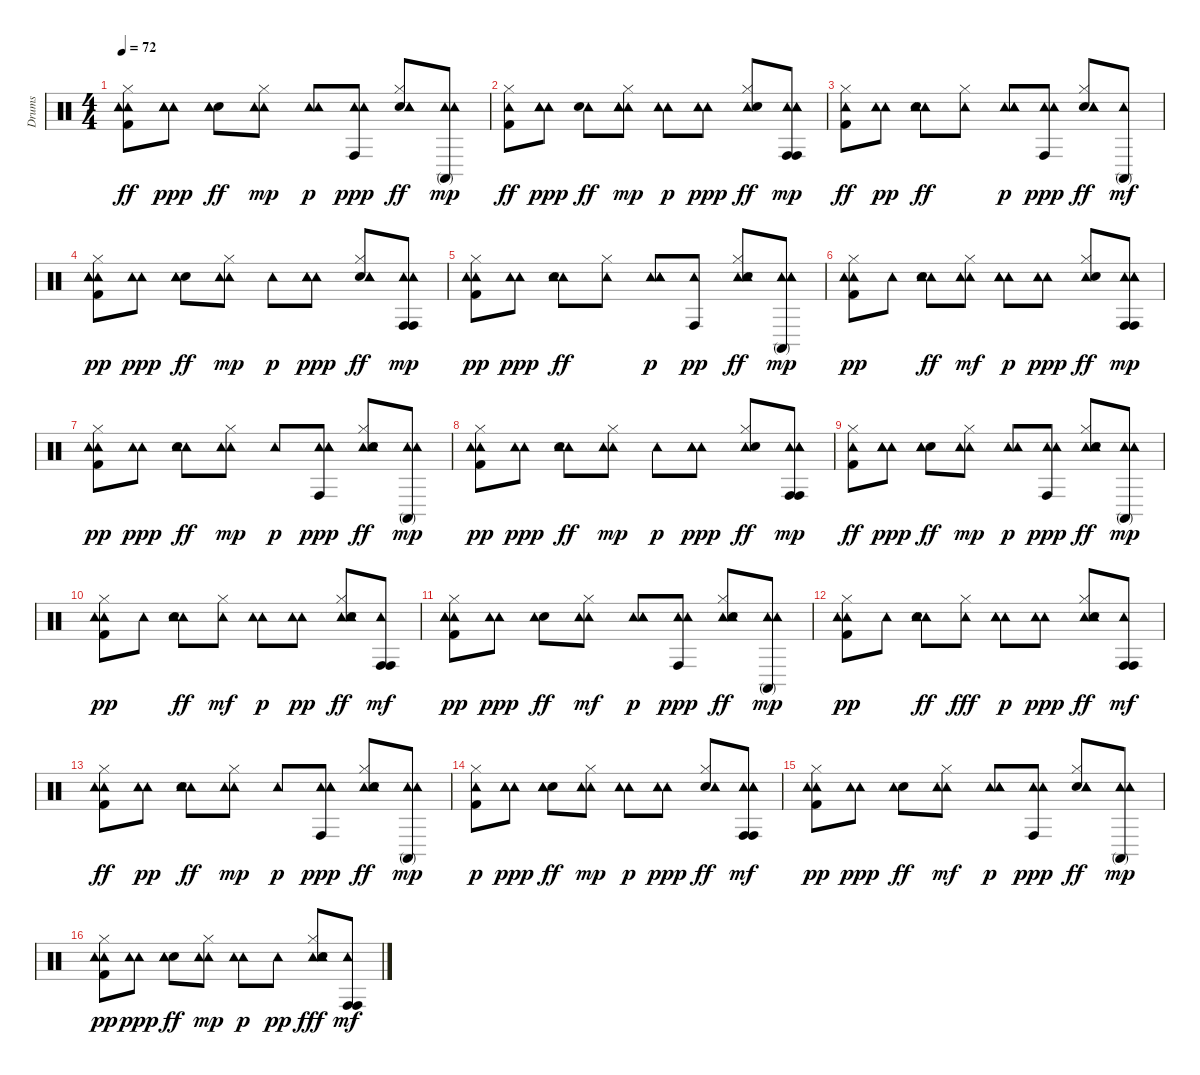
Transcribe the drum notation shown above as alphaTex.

\track ("Drums" "Drums") {instrument percussion}
\staff {score}
\articulation defaults
\ts (4 4)
\tempo 72
\clef neutral
\ks c
("Tambourine (hit)" "Tambourine (hit)" "Kick (hit) 2" "Hi-Hat (closed)").8{dy ff} ("Tambourine (hit)" "Tambourine (hit)" "Tambourine (hit)").8{dy ppp} ("Snare (hit) 2" "Tambourine (hit)" "Tambourine (hit)").8{dy ff} ("Tambourine (hit)" "Hi-Hat (closed)" "Tambourine (hit)").8{dy mp} ("Tambourine (hit)" "Tambourine (hit)").8{dy p} ("Tambourine (hit)" "Conga high (hit)" "Tambourine (hit)").8{dy ppp} ("Snare (hit) 2" "Tambourine (hit)" "Hi-Hat (closed)" "Tambourine (hit)").8{dy ff} ("Conga high (mute)" "Tambourine (hit)" "Tambourine (hit)").8{dy mp} |
("Hi-Hat (closed)" "Tambourine (hit)" "Kick (hit) 2").8{dy ff} ("Tambourine (hit)" "Tambourine (hit)" "Tambourine (hit)").8{dy ppp} ("Tambourine (hit)" "Snare (hit) 2").8{dy ff} ("Tambourine (hit)" "Tambourine (hit)" "Hi-Hat (closed)" "Tambourine (hit)").8{dy mp} ("Tambourine (hit)" "Tambourine (hit)").8{dy p} ("Tambourine (hit)" "Tambourine (hit)").8{dy ppp} ("Tambourine (hit)" "Hi-Hat (closed)" "Snare (hit) 2").8{dy ff} ("Tambourine (hit)" "Tambourine (hit)" "Conga high (hit)" "Conga high (hit)" "Tambourine (hit)").8{dy mp} |
("Tambourine (hit)" "Kick (hit) 2" "Hi-Hat (closed)").8{dy ff} ("Tambourine (hit)" "Tambourine (hit)").8{dy pp} ("Tambourine (hit)" "Tambourine (hit)" "Snare (hit) 2" "Tambourine (hit)").8{dy ff} ("Tambourine (hit)" "Hi-Hat (closed)").8 ("Tambourine (hit)" "Tambourine (hit)" "Tambourine (hit)").8{dy p} ("Conga high (hit)" "Tambourine (hit)" "Tambourine (hit)").8{dy ppp} ("Snare (hit) 2" "Hi-Hat (closed)" "Tambourine (hit)" "Tambourine (hit)").8{dy ff} ("Conga high (mute)" "Tambourine (hit)").8{dy mf} |
("Tambourine (hit)" "Tambourine (hit)" "Hi-Hat (closed)" "Kick (hit) 2" "Tambourine (hit)").8{dy pp} ("Tambourine (hit)" "Tambourine (hit)").8{dy ppp} ("Snare (hit) 2" "Tambourine (hit)" "Tambourine (hit)").8{dy ff} ("Tambourine (hit)" "Hi-Hat (closed)" "Tambourine (hit)").8{dy mp} "Tambourine (hit)".8{dy p} ("Tambourine (hit)" "Tambourine (hit)" "Tambourine (hit)").8{dy ppp} ("Snare (hit) 2" "Hi-Hat (closed)" "Tambourine (hit)" "Tambourine (hit)").8{dy ff} ("Conga high (hit)" "Tambourine (hit)" "Tambourine (hit)" "Conga high (hit)").8{dy mp} |
("Kick (hit) 2" "Hi-Hat (closed)" "Tambourine (hit)" "Tambourine (hit)").8{dy pp} ("Tambourine (hit)" "Tambourine (hit)").8{dy ppp} ("Tambourine (hit)" "Snare (hit) 2" "Tambourine (hit)").8{dy ff} ("Tambourine (hit)" "Hi-Hat (closed)").8 ("Tambourine (hit)" "Tambourine (hit)" "Tambourine (hit)").8{dy p} ("Conga high (hit)" "Tambourine (hit)").8{dy pp} ("Tambourine (hit)" "Tambourine (hit)" "Snare (hit) 2" "Hi-Hat (closed)").8{dy ff} ("Tambourine (hit)" "Tambourine (hit)" "Conga high (mute)" "Tambourine (hit)").8{dy mp} |
("Hi-Hat (closed)" "Tambourine (hit)" "Kick (hit) 2" "Tambourine (hit)").8{dy pp} "Tambourine (hit)".8 ("Tambourine (hit)" "Snare (hit) 2" "Tambourine (hit)").8{dy ff} ("Tambourine (hit)" "Hi-Hat (closed)" "Tambourine (hit)").8{dy mf} ("Tambourine (hit)" "Tambourine (hit)" "Tambourine (hit)").8{dy p} ("Tambourine (hit)" "Tambourine (hit)").8{dy ppp} ("Hi-Hat (closed)" "Tambourine (hit)" "Snare (hit) 2").8{dy ff} ("Tambourine (hit)" "Tambourine (hit)" "Conga high (hit)" "Tambourine (hit)" "Conga high (hit)").8{dy mp} |
("Tambourine (hit)" "Kick (hit) 2" "Hi-Hat (closed)" "Tambourine (hit)").8{dy pp} ("Tambourine (hit)" "Tambourine (hit)").8{dy ppp} ("Tambourine (hit)" "Snare (hit) 2" "Tambourine (hit)").8{dy ff} ("Tambourine (hit)" "Hi-Hat (closed)" "Tambourine (hit)").8{dy mp} "Tambourine (hit)".8{dy p} ("Tambourine (hit)" "Tambourine (hit)" "Conga high (hit)" "Tambourine (hit)").8{dy ppp} ("Hi-Hat (closed)" "Tambourine (hit)" "Snare (hit) 2" "Tambourine (hit)").8{dy ff} ("Tambourine (hit)" "Conga high (mute)" "Tambourine (hit)").8{dy mp} |
("Kick (hit) 2" "Tambourine (hit)" "Hi-Hat (closed)" "Tambourine (hit)").8{dy pp} ("Tambourine (hit)" "Tambourine (hit)").8{dy ppp} ("Tambourine (hit)" "Snare (hit) 2" "Tambourine (hit)").8{dy ff} ("Tambourine (hit)" "Hi-Hat (closed)" "Tambourine (hit)").8{dy mp} "Tambourine (hit)".8{dy p} ("Tambourine (hit)" "Tambourine (hit)" "Tambourine (hit)").8{dy ppp} ("Tambourine (hit)" "Snare (hit) 2" "Hi-Hat (closed)").8{dy ff} ("Tambourine (hit)" "Tambourine (hit)" "Conga high (hit)" "Tambourine (hit)" "Conga high (hit)").8{dy mp} |
("Hi-Hat (closed)" "Tambourine (hit)" "Kick (hit) 2").8{dy ff} ("Tambourine (hit)" "Tambourine (hit)" "Tambourine (hit)").8{dy ppp} ("Snare (hit) 2" "Tambourine (hit)" "Tambourine (hit)").8{dy ff} ("Hi-Hat (closed)" "Tambourine (hit)" "Tambourine (hit)").8{dy mp} ("Tambourine (hit)" "Tambourine (hit)").8{dy p} ("Conga high (hit)" "Tambourine (hit)" "Tambourine (hit)").8{dy ppp} ("Tambourine (hit)" "Hi-Hat (closed)" "Snare (hit) 2" "Tambourine (hit)").8{dy ff} ("Tambourine (hit)" "Conga high (mute)" "Tambourine (hit)").8{dy mp} |
("Hi-Hat (closed)" "Kick (hit) 2" "Tambourine (hit)" "Tambourine (hit)").8{dy pp} "Tambourine (hit)".8 ("Tambourine (hit)" "Tambourine (hit)" "Snare (hit) 2" "Tambourine (hit)").8{dy ff} ("Hi-Hat (closed)" "Tambourine (hit)").8{dy mf} ("Tambourine (hit)" "Tambourine (hit)").8{dy p} ("Tambourine (hit)" "Tambourine (hit)").8{dy pp} ("Tambourine (hit)" "Tambourine (hit)" "Snare (hit) 2" "Hi-Hat (closed)" "Tambourine (hit)").8{dy ff} ("Tambourine (hit)" "Conga high (hit)" "Conga high (hit)").8{dy mf} |
("Tambourine (hit)" "Kick (hit) 2" "Hi-Hat (closed)" "Tambourine (hit)" "Tambourine (hit)").8{dy pp} ("Tambourine (hit)" "Tambourine (hit)").8{dy ppp} ("Snare (hit) 2" "Tambourine (hit)").8{dy ff} ("Tambourine (hit)" "Hi-Hat (closed)" "Tambourine (hit)").8{dy mf} ("Tambourine (hit)" "Tambourine (hit)" "Tambourine (hit)").8{dy p} ("Tambourine (hit)" "Conga high (hit)" "Tambourine (hit)").8{dy ppp} ("Hi-Hat (closed)" "Tambourine (hit)" "Snare (hit) 2" "Tambourine (hit)").8{dy ff} ("Tambourine (hit)" "Conga high (mute)" "Tambourine (hit)").8{dy mp} |
("Kick (hit) 2" "Hi-Hat (closed)" "Tambourine (hit)" "Tambourine (hit)").8{dy pp} "Tambourine (hit)".8 ("Tambourine (hit)" "Snare (hit) 2" "Tambourine (hit)" "Tambourine (hit)").8{dy ff} ("Tambourine (hit)" "Hi-Hat (closed)").8{dy fff} ("Tambourine (hit)" "Tambourine (hit)" "Tambourine (hit)").8{dy p} ("Tambourine (hit)" "Tambourine (hit)").8{dy ppp} ("Tambourine (hit)" "Snare (hit) 2" "Hi-Hat (closed)" "Tambourine (hit)").8{dy ff} ("Tambourine (hit)" "Conga high (hit)" "Conga high (hit)").8{dy mf} |
("Tambourine (hit)" "Hi-Hat (closed)" "Tambourine (hit)" "Kick (hit) 2").8{dy ff} ("Tambourine (hit)" "Tambourine (hit)").8{dy pp} ("Tambourine (hit)" "Tambourine (hit)" "Snare (hit) 2" "Tambourine (hit)").8{dy ff} ("Hi-Hat (closed)" "Tambourine (hit)" "Tambourine (hit)").8{dy mp} "Tambourine (hit)".8{dy p} ("Tambourine (hit)" "Conga high (hit)" "Tambourine (hit)" "Tambourine (hit)").8{dy ppp} ("Hi-Hat (closed)" "Tambourine (hit)" "Snare (hit) 2" "Tambourine (hit)").8{dy ff} ("Tambourine (hit)" "Conga high (mute)" "Tambourine (hit)").8{dy mp} |
("Kick (hit) 2" "Hi-Hat (closed)" "Tambourine (hit)").8{dy p} ("Tambourine (hit)" "Tambourine (hit)" "Tambourine (hit)").8{dy ppp} ("Snare (hit) 2" "Tambourine (hit)" "Tambourine (hit)").8{dy ff} ("Hi-Hat (closed)" "Tambourine (hit)" "Tambourine (hit)").8{dy mp} ("Tambourine (hit)" "Tambourine (hit)").8{dy p} ("Tambourine (hit)" "Tambourine (hit)").8{dy ppp} ("Snare (hit) 2" "Hi-Hat (closed)" "Tambourine (hit)").8{dy ff} ("Tambourine (hit)" "Conga high (hit)" "Tambourine (hit)" "Tambourine (hit)" "Conga high (hit)").8{dy mf} |
("Tambourine (hit)" "Hi-Hat (closed)" "Kick (hit) 2" "Tambourine (hit)").8{dy pp} ("Tambourine (hit)" "Tambourine (hit)").8{dy ppp} ("Snare (hit) 2" "Tambourine (hit)").8{dy ff} ("Tambourine (hit)" "Hi-Hat (closed)" "Tambourine (hit)").8{dy mf} ("Tambourine (hit)" "Tambourine (hit)" "Tambourine (hit)").8{dy p} ("Tambourine (hit)" "Conga high (hit)" "Tambourine (hit)").8{dy ppp} ("Snare (hit) 2" "Hi-Hat (closed)" "Tambourine (hit)" "Tambourine (hit)").8{dy ff} ("Tambourine (hit)" "Conga high (mute)" "Tambourine (hit)").8{dy mp} |
("Kick (hit) 2" "Tambourine (hit)" "Hi-Hat (closed)" "Tambourine (hit)").8{dy pp} ("Tambourine (hit)" "Tambourine (hit)").8{dy ppp} ("Snare (hit) 2" "Tambourine (hit)" "Tambourine (hit)").8{dy ff} ("Hi-Hat (closed)" "Tambourine (hit)" "Tambourine (hit)").8{dy mp} ("Tambourine (hit)" "Tambourine (hit)").8{dy p} "Tambourine (hit)".8{dy pp} ("Tambourine (hit)" "Snare (hit) 2" "Tambourine (hit)" "Hi-Hat (closed)" "Tambourine (hit)").8{dy fff} ("Tambourine (hit)" "Conga high (hit)" "Conga high (hit)").8{dy mf}
